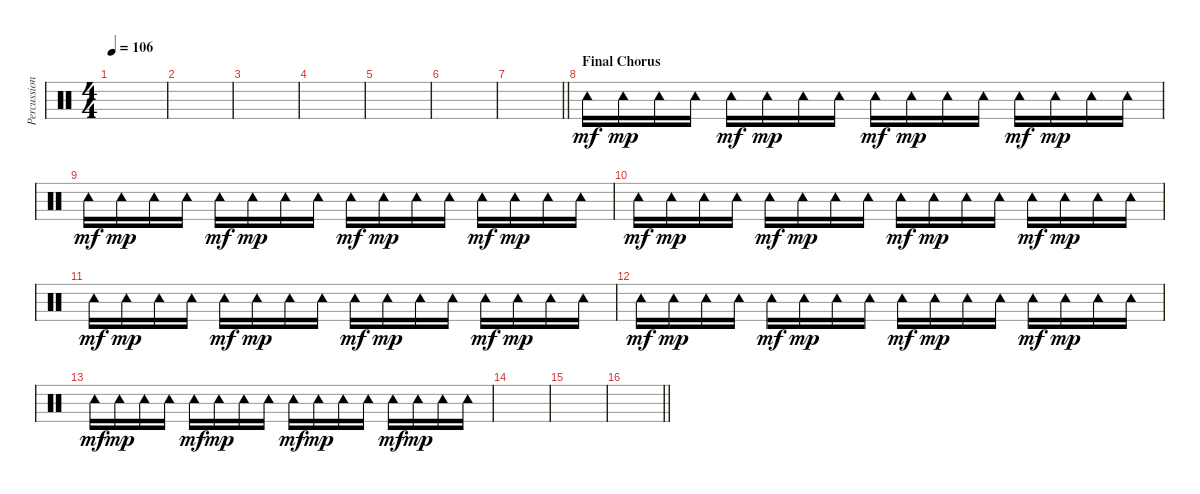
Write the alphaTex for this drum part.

\track ("Percussion (Tre Cool)" "Percussion") {instrument percussion}
\staff {score}
\articulation defaults
\ts (4 4)
\tempo 106
\clef neutral
\ks c
|
|
|
|
|
|
\barLineRight lightlight
|
\section ("" "Final Chorus")
"Tambourine (hit)".16{dy mf} "Tambourine (hit)".16{dy mp} "Tambourine (hit)".16 "Tambourine (hit)".16 "Tambourine (hit)".16{dy mf} "Tambourine (hit)".16{dy mp} "Tambourine (hit)".16 "Tambourine (hit)".16 "Tambourine (hit)".16{dy mf} "Tambourine (hit)".16{dy mp} "Tambourine (hit)".16 "Tambourine (hit)".16 "Tambourine (hit)".16{dy mf} "Tambourine (hit)".16{dy mp} "Tambourine (hit)".16 "Tambourine (hit)".16 |
"Tambourine (hit)".16{dy mf} "Tambourine (hit)".16{dy mp} "Tambourine (hit)".16 "Tambourine (hit)".16 "Tambourine (hit)".16{dy mf} "Tambourine (hit)".16{dy mp} "Tambourine (hit)".16 "Tambourine (hit)".16 "Tambourine (hit)".16{dy mf} "Tambourine (hit)".16{dy mp} "Tambourine (hit)".16 "Tambourine (hit)".16 "Tambourine (hit)".16{dy mf} "Tambourine (hit)".16{dy mp} "Tambourine (hit)".16 "Tambourine (hit)".16 |
"Tambourine (hit)".16{dy mf} "Tambourine (hit)".16{dy mp} "Tambourine (hit)".16 "Tambourine (hit)".16 "Tambourine (hit)".16{dy mf} "Tambourine (hit)".16{dy mp} "Tambourine (hit)".16 "Tambourine (hit)".16 "Tambourine (hit)".16{dy mf} "Tambourine (hit)".16{dy mp} "Tambourine (hit)".16 "Tambourine (hit)".16 "Tambourine (hit)".16{dy mf} "Tambourine (hit)".16{dy mp} "Tambourine (hit)".16 "Tambourine (hit)".16 |
"Tambourine (hit)".16{dy mf} "Tambourine (hit)".16{dy mp} "Tambourine (hit)".16 "Tambourine (hit)".16 "Tambourine (hit)".16{dy mf} "Tambourine (hit)".16{dy mp} "Tambourine (hit)".16 "Tambourine (hit)".16 "Tambourine (hit)".16{dy mf} "Tambourine (hit)".16{dy mp} "Tambourine (hit)".16 "Tambourine (hit)".16 "Tambourine (hit)".16{dy mf} "Tambourine (hit)".16{dy mp} "Tambourine (hit)".16 "Tambourine (hit)".16 |
"Tambourine (hit)".16{dy mf} "Tambourine (hit)".16{dy mp} "Tambourine (hit)".16 "Tambourine (hit)".16 "Tambourine (hit)".16{dy mf} "Tambourine (hit)".16{dy mp} "Tambourine (hit)".16 "Tambourine (hit)".16 "Tambourine (hit)".16{dy mf} "Tambourine (hit)".16{dy mp} "Tambourine (hit)".16 "Tambourine (hit)".16 "Tambourine (hit)".16{dy mf} "Tambourine (hit)".16{dy mp} "Tambourine (hit)".16 "Tambourine (hit)".16 |
"Tambourine (hit)".16{dy mf} "Tambourine (hit)".16{dy mp} "Tambourine (hit)".16 "Tambourine (hit)".16 "Tambourine (hit)".16{dy mf} "Tambourine (hit)".16{dy mp} "Tambourine (hit)".16 "Tambourine (hit)".16 "Tambourine (hit)".16{dy mf} "Tambourine (hit)".16{dy mp} "Tambourine (hit)".16 "Tambourine (hit)".16 "Tambourine (hit)".16{dy mf} "Tambourine (hit)".16{dy mp} "Tambourine (hit)".16 "Tambourine (hit)".16 |
|
|
\barLineRight lightlight
